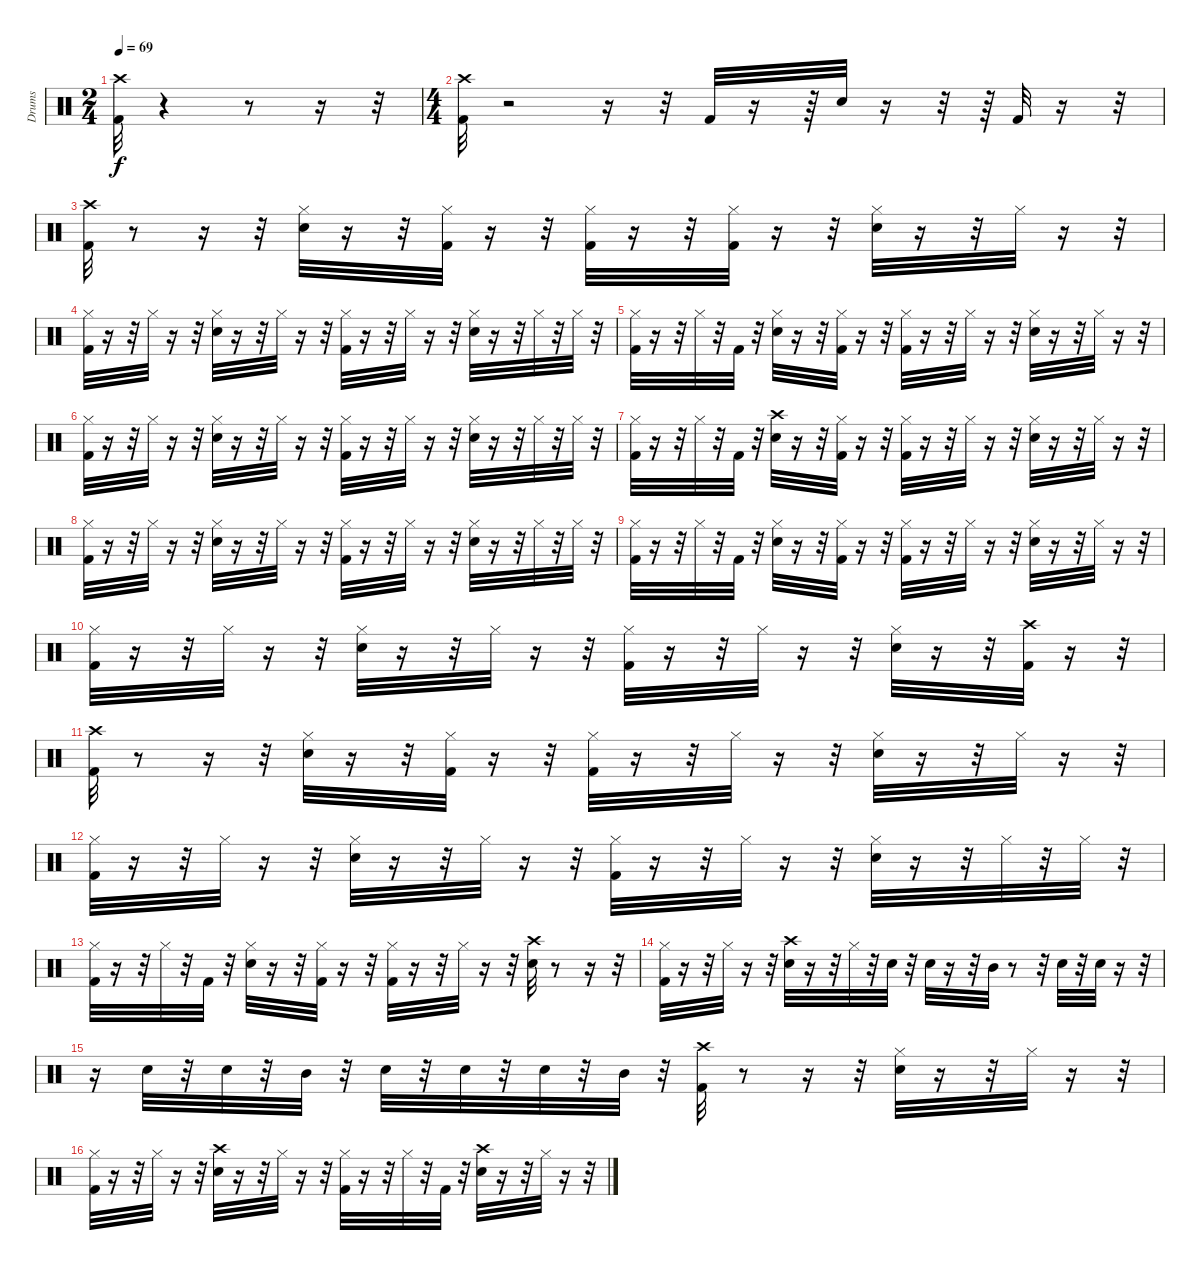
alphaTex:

\track ("Drums" "Drums") {instrument percussion}
\staff {score}
\articulation defaults
\ts (2 4)
\tempo 69
\clef neutral
\ks c
("Kick (hit) 2" "Crash high (hit)").32{dy f} r.4 r.8 r.16 r.32 |
\ts (4 4)
("Crash high (hit)" "Kick (hit) 2").32 r.2 r.16 r.32 "Kick (hit) 2".32 r.16 r.64 "Snare (hit) 2".32 r.16 r.32 r.64 "Kick (hit) 2".32 r.16 r.32 |
("Kick (hit) 2" "Crash high (hit)").32 r.8 r.16 r.32 ("Hi-Hat (closed)" "Snare (hit) 2").32 r.16 r.32 ("Hi-Hat (closed)" "Kick (hit) 2").32 r.16 r.32 ("Hi-Hat (closed)" "Kick (hit) 2").32 r.16 r.32 ("Hi-Hat (closed)" "Kick (hit) 2").32 r.16 r.32 ("Hi-Hat (closed)" "Snare (hit) 2").32 r.16 r.32 "Hi-Hat (closed)".32 r.16 r.32 |
("Hi-Hat (closed)" "Kick (hit) 2").32 r.16 r.32 "Hi-Hat (closed)".32 r.16 r.32 ("Snare (hit) 2" "Hi-Hat (closed)").32 r.16 r.32 "Hi-Hat (closed)".32 r.16 r.32 ("Hi-Hat (closed)" "Kick (hit) 2").32 r.16 r.32 "Hi-Hat (closed)".32 r.16 r.32 ("Hi-Hat (closed)" "Snare (hit) 2").32 r.16 r.32 "Hi-Hat (closed)".32 r.32 "Hi-Hat (closed)".32 r.32 |
("Hi-Hat (closed)" "Kick (hit) 2").32 r.16 r.32 "Hi-Hat (closed)".32 r.32 "Kick (hit) 2".32 r.32 ("Snare (hit) 2" "Hi-Hat (closed)").32 r.16 r.32 ("Kick (hit) 2" "Hi-Hat (closed)").32 r.16 r.32 ("Hi-Hat (closed)" "Kick (hit) 2").32 r.16 r.32 "Hi-Hat (closed)".32 r.16 r.32 ("Snare (hit) 2" "Hi-Hat (closed)").32 r.16 r.32 "Hi-Hat (closed)".32 r.16 r.32 |
("Hi-Hat (closed)" "Kick (hit) 2").32 r.16 r.32 "Hi-Hat (closed)".32 r.16 r.32 ("Snare (hit) 2" "Hi-Hat (closed)").32 r.16 r.32 "Hi-Hat (closed)".32 r.16 r.32 ("Kick (hit) 2" "Hi-Hat (closed)").32 r.16 r.32 "Hi-Hat (closed)".32 r.16 r.32 ("Hi-Hat (closed)" "Snare (hit) 2").32 r.16 r.32 "Hi-Hat (closed)".32 r.32 "Hi-Hat (closed)".32 r.32 |
("Hi-Hat (closed)" "Kick (hit) 2").32 r.16 r.32 "Hi-Hat (closed)".32 r.32 "Kick (hit) 2".32 r.32 ("Crash high (hit)" "Snare (hit) 2").32 r.16 r.32 ("Hi-Hat (closed)" "Kick (hit) 2").32 r.16 r.32 ("Hi-Hat (closed)" "Kick (hit) 2").32 r.16 r.32 "Hi-Hat (closed)".32 r.16 r.32 ("Snare (hit) 2" "Hi-Hat (closed)").32 r.16 r.32 "Hi-Hat (closed)".32 r.16 r.32 |
("Hi-Hat (closed)" "Kick (hit) 2").32 r.16 r.32 "Hi-Hat (closed)".32 r.16 r.32 ("Snare (hit) 2" "Hi-Hat (closed)").32 r.16 r.32 "Hi-Hat (closed)".32 r.16 r.32 ("Kick (hit) 2" "Hi-Hat (closed)").32 r.16 r.32 "Hi-Hat (closed)".32 r.16 r.32 ("Hi-Hat (closed)" "Snare (hit) 2").32 r.16 r.32 "Hi-Hat (closed)".32 r.32 "Hi-Hat (closed)".32 r.32 |
("Hi-Hat (closed)" "Kick (hit) 2").32 r.16 r.32 "Hi-Hat (closed)".32 r.32 "Kick (hit) 2".32 r.32 ("Snare (hit) 2" "Hi-Hat (closed)").32 r.16 r.32 ("Kick (hit) 2" "Hi-Hat (closed)").32 r.16 r.32 ("Hi-Hat (closed)" "Kick (hit) 2").32 r.16 r.32 "Hi-Hat (closed)".32 r.16 r.32 ("Snare (hit) 2" "Hi-Hat (closed)").32 r.16 r.32 "Hi-Hat (closed)".32 r.16 r.32 |
("Hi-Hat (closed)" "Kick (hit) 2").32 r.16 r.32 "Hi-Hat (closed)".32 r.16 r.32 ("Snare (hit) 2" "Hi-Hat (closed)").32 r.16 r.32 "Hi-Hat (closed)".32 r.16 r.32 ("Hi-Hat (closed)" "Kick (hit) 2").32 r.16 r.32 "Hi-Hat (closed)".32 r.16 r.32 ("Snare (hit) 2" "Hi-Hat (closed)").32 r.16 r.32 ("Crash high (hit)" "Kick (hit) 2").32 r.16 r.32 |
("Kick (hit) 2" "Crash high (hit)").32 r.8 r.16 r.32 ("Hi-Hat (closed)" "Snare (hit) 2").32 r.16 r.32 ("Hi-Hat (closed)" "Kick (hit) 2").32 r.16 r.32 ("Hi-Hat (closed)" "Kick (hit) 2").32 r.16 r.32 "Hi-Hat (closed)".32 r.16 r.32 ("Snare (hit) 2" "Hi-Hat (closed)").32 r.16 r.32 "Hi-Hat (closed)".32 r.16 r.32 |
("Kick (hit) 2" "Hi-Hat (closed)").32 r.16 r.32 "Hi-Hat (closed)".32 r.16 r.32 ("Snare (hit) 2" "Hi-Hat (closed)").32 r.16 r.32 "Hi-Hat (closed)".32 r.16 r.32 ("Hi-Hat (closed)" "Kick (hit) 2").32 r.16 r.32 "Hi-Hat (closed)".32 r.16 r.32 ("Snare (hit) 2" "Hi-Hat (closed)").32 r.16 r.32 "Hi-Hat (closed)".32 r.32 "Hi-Hat (closed)".32 r.32 |
("Hi-Hat (closed)" "Kick (hit) 2").32 r.16 r.32 "Hi-Hat (closed)".32 r.32 "Kick (hit) 2".32 r.32 ("Snare (hit) 2" "Hi-Hat (closed)").32 r.16 r.32 ("Hi-Hat (closed)" "Kick (hit) 2").32 r.16 r.32 ("Hi-Hat (closed)" "Kick (hit) 2").32 r.16 r.32 "Hi-Hat (closed)".32 r.16 r.32 ("Crash high (hit)" "Snare (hit) 2").32 r.8 r.16 r.32 |
("Kick (hit) 2" "Hi-Hat (closed)").32 r.16 r.32 "Hi-Hat (closed)".32 r.16 r.32 ("Crash high (hit)" "Snare (hit) 2").32 r.16 r.32 "Hi-Hat (closed)".32 r.32 "Snare (hit) 2".32 r.32 "Snare (hit) 2".32 r.16 r.32 "Mid Tom (hit)".32 r.8 r.32 "Snare (hit) 2".32 r.32 "Snare (hit) 2".32 r.16 r.32 |
r.16 "Snare (hit) 2".32 r.32 "Snare (hit) 2".32 r.32 "Mid Tom (hit)".32 r.32 "Snare (hit) 2".32 r.32 "Snare (hit) 2".32 r.32 "Snare (hit) 2".32 r.32 "Mid Tom (hit)".32 r.32 ("Crash high (hit)" "Kick (hit) 2").32 r.8 r.16 r.32 ("Hi-Hat (closed)" "Snare (hit) 2").32 r.16 r.32 "Hi-Hat (closed)".32 r.16 r.32 |
("Kick (hit) 2" "Hi-Hat (closed)").32 r.16 r.32 "Hi-Hat (closed)".32 r.16 r.32 ("Crash high (hit)" "Snare (hit) 2").32 r.16 r.32 "Hi-Hat (closed)".32 r.16 r.32 ("Hi-Hat (closed)" "Kick (hit) 2").32 r.16 r.32 "Hi-Hat (closed)".32 r.32 "Kick (hit) 2".32 r.32 ("Crash high (hit)" "Snare (hit) 2").32 r.16 r.32 "Hi-Hat (closed)".32 r.16 r.32
